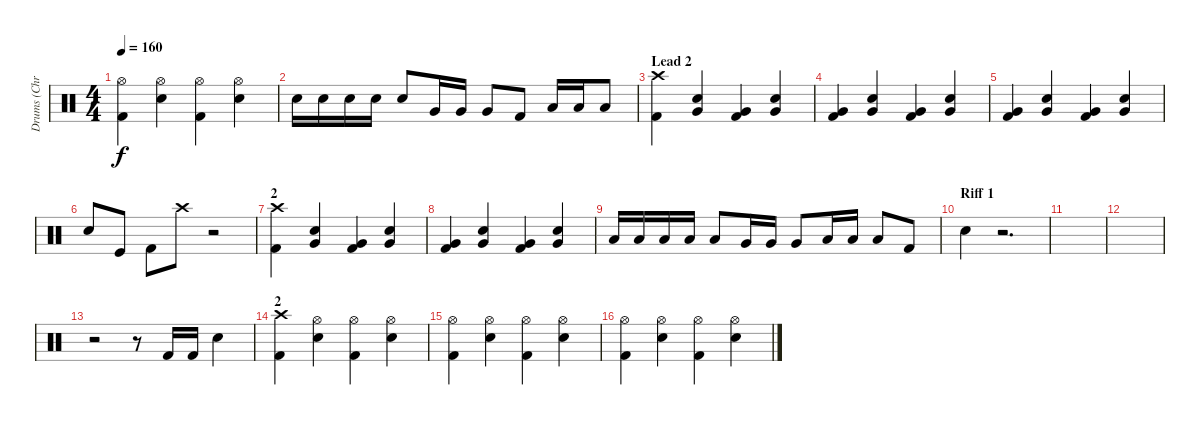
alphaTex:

\track ("Drums (Chris Efthimiadis)" "Drums (Chr") {instrument percussion}
\staff {score}
\articulation defaults
\ts (4 4)
\tempo 160
\clef neutral
\ks c
("Hi-Hat (open)" "Kick (hit) 2").4{dy f} ("Hi-Hat (open)" "Snare (hit) 2").4 ("Hi-Hat (open)" "Kick (hit) 2").4 ("Hi-Hat (open)" "Snare (hit) 2").4 |
"Snare (hit) 2".16 "Snare (hit) 2".16 "Snare (hit) 2".16 "Snare (hit) 2".16 "Snare (hit) 2".8 "Very Low Tom (hit)".16 "Very Low Tom (hit)".16 "Very Low Tom (hit)".8 "Kick (hit) 2".8 "Low Floor Tom (hit)".16 "Low Floor Tom (hit)".16 "Low Floor Tom (hit)".8 |
\section ("" "Lead 2")
("Crash high (hit)" "Kick (hit) 2").4 ("Very Low Tom (hit)" "Snare (hit) 2").4 ("Very Low Tom (hit)" "Kick (hit) 2").4 ("Very Low Tom (hit)" "Snare (hit) 2").4 |
("Very Low Tom (hit)" "Kick (hit) 2").4 ("Very Low Tom (hit)" "Snare (hit) 2").4 ("Very Low Tom (hit)" "Kick (hit) 2").4 ("Very Low Tom (hit)" "Snare (hit) 2").4 |
("Very Low Tom (hit)" "Kick (hit) 2").4 ("Very Low Tom (hit)" "Snare (hit) 2").4 ("Very Low Tom (hit)" "Kick (hit) 2").4 ("Very Low Tom (hit)" "Snare (hit) 2").4 |
"Snare (hit) 2".8 "Kick (hit)".8 "Kick (hit) 2".8 "Crash high (hit)".8 r.2 |
\section ("" "2")
("Crash high (hit)" "Kick (hit) 2").4 ("Very Low Tom (hit)" "Snare (hit) 2").4 ("Very Low Tom (hit)" "Kick (hit) 2").4 ("Very Low Tom (hit)" "Snare (hit) 2").4 |
("Very Low Tom (hit)" "Kick (hit) 2").4 ("Very Low Tom (hit)" "Snare (hit) 2").4 ("Very Low Tom (hit)" "Kick (hit) 2").4 ("Very Low Tom (hit)" "Snare (hit) 2").4 |
"Low Tom (hit)".16 "Low Tom (hit)".16 "Low Tom (hit)".16 "Low Tom (hit)".16 "Low Tom (hit)".8 "Very Low Tom (hit)".16 "Very Low Tom (hit)".16 "Very Low Tom (hit)".8 "Low Floor Tom (hit)".16 "Low Floor Tom (hit)".16 "Low Floor Tom (hit)".8 "Kick (hit) 2".8 |
\section ("" "Riff 1")
"Snare (hit) 2".4 r.2{d} |
|
|
r.2 r.8 "Kick (hit) 2".16 "Kick (hit) 2".16 "Snare (hit) 2".4 |
\section ("" "2")
("Crash high (hit)" "Kick (hit) 2").4 ("Hi-Hat (open)" "Snare (hit) 2").4 ("Hi-Hat (open)" "Kick (hit) 2").4 ("Hi-Hat (open)" "Snare (hit) 2").4 |
("Hi-Hat (open)" "Kick (hit) 2").4 ("Hi-Hat (open)" "Snare (hit) 2").4 ("Hi-Hat (open)" "Kick (hit) 2").4 ("Hi-Hat (open)" "Snare (hit) 2").4 |
("Hi-Hat (open)" "Kick (hit) 2").4 ("Hi-Hat (open)" "Snare (hit) 2").4 ("Hi-Hat (open)" "Kick (hit) 2").4 ("Hi-Hat (open)" "Snare (hit) 2").4
